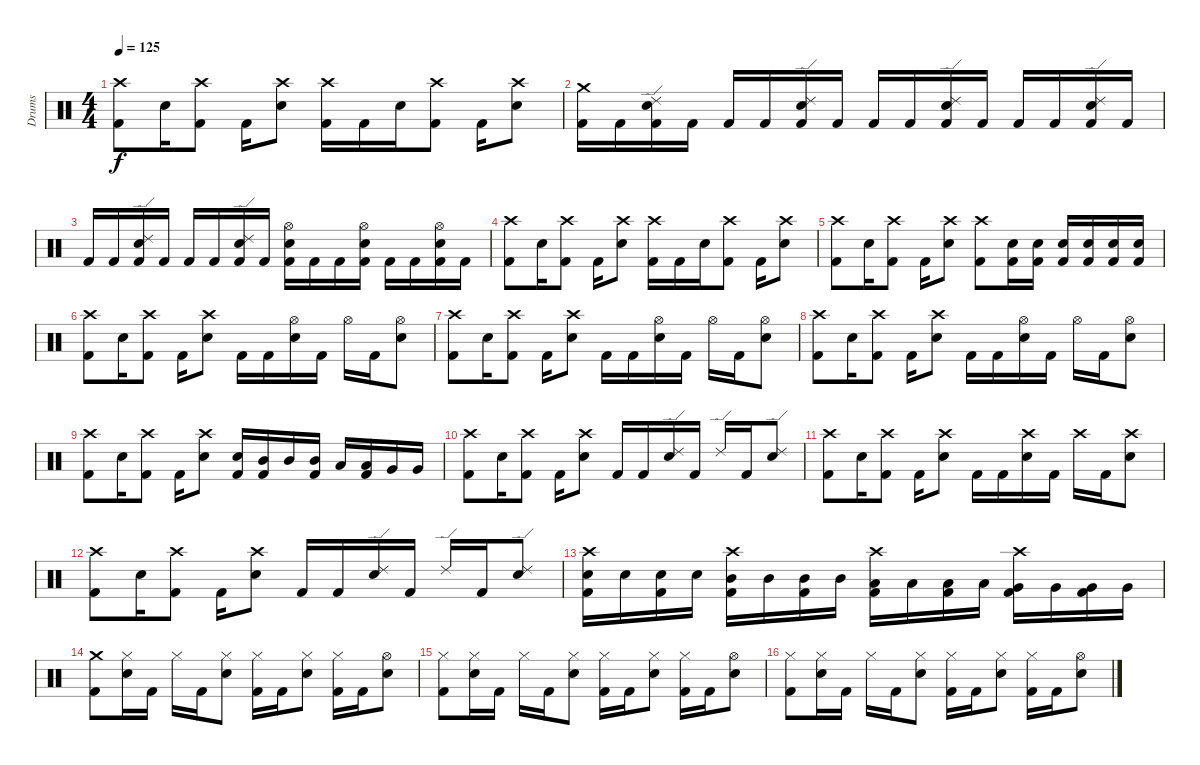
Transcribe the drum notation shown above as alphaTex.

\track ("Drums" "Drums") {instrument percussion}
\staff {score}
\articulation defaults
\ts (4 4)
\tempo 125
\clef neutral
\ks c
("Crash high (hit)" "Kick (hit) 2").8{dy f} "Snare (hit) 2".16 ("Crash high (hit)" "Kick (hit) 2").8 "Kick (hit) 2".16 ("Crash high (hit)" "Snare (hit) 2").8 ("Crash high (hit)" "Kick (hit) 2").16 "Kick (hit) 2".16 "Snare (hit) 2".16 ("Crash high (hit)" "Kick (hit) 2").8 "Kick (hit) 2".16 ("Crash high (hit)" "Snare (hit) 2").8 |
("Crash medium (hit)" "Kick (hit) 2").16 "Kick (hit) 2".16 ("Snare (hit) 2" "Ride (edge) 2" "Kick (hit) 2").16 "Kick (hit) 2".16 "Kick (hit) 2".16 "Kick (hit) 2".16 ("Snare (hit) 2" "Ride (edge) 2" "Kick (hit) 2").16 "Kick (hit) 2".16 "Kick (hit) 2".16 "Kick (hit) 2".16 ("Snare (hit) 2" "Ride (edge) 2" "Kick (hit) 2").16 "Kick (hit) 2".16 "Kick (hit) 2".16 "Kick (hit) 2".16 ("Snare (hit) 2" "Ride (edge) 2" "Kick (hit) 2").16 "Kick (hit) 2".16 |
"Kick (hit) 2".16 "Kick (hit) 2".16 ("Snare (hit) 2" "Ride (edge) 2" "Kick (hit) 2").16 "Kick (hit) 2".16 "Kick (hit) 2".16 "Kick (hit) 2".16 ("Snare (hit) 2" "Ride (edge) 2" "Kick (hit) 2").16 "Kick (hit) 2".16 ("Snare (hit) 2" "Hi-Hat (open)" "Kick (hit) 2").16 "Kick (hit) 2".16 "Kick (hit) 2".16 ("Snare (hit) 2" "Hi-Hat (open)" "Kick (hit) 2").16 "Kick (hit) 2".16 "Kick (hit) 2".16 ("Snare (hit) 2" "Hi-Hat (open)" "Kick (hit) 2").16 "Kick (hit) 2".16 |
("Crash high (hit)" "Kick (hit) 2").8 "Snare (hit) 2".16 ("Crash high (hit)" "Kick (hit) 2").8 "Kick (hit) 2".16 ("Crash high (hit)" "Snare (hit) 2").8 ("Crash high (hit)" "Kick (hit) 2").16 "Kick (hit) 2".16 "Snare (hit) 2".16 ("Crash high (hit)" "Kick (hit) 2").8 "Kick (hit) 2".16 ("Crash high (hit)" "Snare (hit) 2").8 |
("Crash high (hit)" "Kick (hit) 2").8 "Snare (hit) 2".16 ("Crash high (hit)" "Kick (hit) 2").8 "Kick (hit) 2".16 ("Crash high (hit)" "Snare (hit) 2").8 ("Crash high (hit)" "Kick (hit) 2").8 ("Snare (hit) 2" "Kick (hit) 2").16 ("Snare (hit) 2" "Kick (hit) 2").16 ("Snare (hit) 2" "Kick (hit) 2").16 ("Snare (hit) 2" "Kick (hit) 2").16 ("Snare (hit) 2" "Kick (hit) 2").16 ("Snare (hit) 2" "Kick (hit) 2").16 |
("Crash high (hit)" "Kick (hit) 2").8 "Snare (hit) 2".16 ("Crash high (hit)" "Kick (hit) 2").8 "Kick (hit) 2".16 ("Crash high (hit)" "Snare (hit) 2").8 "Kick (hit) 2".16 "Kick (hit) 2".16 ("Snare (hit) 2" "Hi-Hat (open)").16 "Kick (hit) 2".16 "Hi-Hat (open)".16 "Kick (hit) 2".16 ("Snare (hit) 2" "Hi-Hat (open)").8 |
("Crash high (hit)" "Kick (hit) 2").8 "Snare (hit) 2".16 ("Crash high (hit)" "Kick (hit) 2").8 "Kick (hit) 2".16 ("Crash high (hit)" "Snare (hit) 2").8 "Kick (hit) 2".16 "Kick (hit) 2".16 ("Snare (hit) 2" "Hi-Hat (open)").16 "Kick (hit) 2".16 "Hi-Hat (open)".16 "Kick (hit) 2".16 ("Snare (hit) 2" "Hi-Hat (open)").8 |
("Crash high (hit)" "Kick (hit) 2").8 "Snare (hit) 2".16 ("Crash high (hit)" "Kick (hit) 2").8 "Kick (hit) 2".16 ("Crash high (hit)" "Snare (hit) 2").8 "Kick (hit) 2".16 "Kick (hit) 2".16 ("Snare (hit) 2" "Hi-Hat (open)").16 "Kick (hit) 2".16 "Hi-Hat (open)".16 "Kick (hit) 2".16 ("Snare (hit) 2" "Hi-Hat (open)").8 |
("Crash high (hit)" "Kick (hit) 2").8 "Snare (hit) 2".16 ("Crash high (hit)" "Kick (hit) 2").8 "Kick (hit) 2".16 ("Crash high (hit)" "Snare (hit) 2").8 ("Snare (hit) 2" "Kick (hit) 2").16 ("Mid Tom (hit)" "Kick (hit) 2").16 "Mid Tom (hit)".16 ("Mid Tom (hit)" "Kick (hit) 2").16 "Low Tom (hit)".16 ("Low Tom (hit)" "Kick (hit) 2").16 "Very Low Tom (hit)".16 "Very Low Tom (hit)".16 |
("Crash high (hit)" "Kick (hit) 2").8 "Snare (hit) 2".16 ("Crash high (hit)" "Kick (hit) 2").8 "Kick (hit) 2".16 ("Crash high (hit)" "Snare (hit) 2").8 "Kick (hit) 2".16 "Kick (hit) 2".16 ("Snare (hit) 2" "Ride (edge) 2").16 "Kick (hit) 2".16 "Ride (edge) 2".16 "Kick (hit) 2".16 ("Snare (hit) 2" "Ride (edge) 2").8 |
("Crash high (hit)" "Kick (hit) 2").8 "Snare (hit) 2".16 ("Crash high (hit)" "Kick (hit) 2").8 "Kick (hit) 2".16 ("Crash high (hit)" "Snare (hit) 2").8 "Kick (hit) 2".16 "Kick (hit) 2".16 ("Crash high (hit)" "Snare (hit) 2").16 "Kick (hit) 2".16 "Crash high (hit)".16 "Kick (hit) 2".16 ("Crash high (hit)" "Snare (hit) 2").8 |
("Crash high (hit)" "Kick (hit) 2").8 "Snare (hit) 2".16 ("Crash high (hit)" "Kick (hit) 2").8 "Kick (hit) 2".16 ("Crash high (hit)" "Snare (hit) 2").8 "Kick (hit) 2".16 "Kick (hit) 2".16 ("Snare (hit) 2" "Ride (edge) 2").16 "Kick (hit) 2".16 "Ride (edge) 2".16 "Kick (hit) 2".16 ("Snare (hit) 2" "Ride (edge) 2").8 |
("Crash high (hit)" "Snare (hit) 2" "Kick (hit) 2").16 "Snare (hit) 2".16 ("Snare (hit) 2" "Kick (hit) 2").16 "Snare (hit) 2".16 ("Crash high (hit)" "Mid Tom (hit)" "Kick (hit) 2").16 "Mid Tom (hit)".16 ("Mid Tom (hit)" "Kick (hit) 2").16 "Mid Tom (hit)".16 ("Crash high (hit)" "Low Tom (hit)" "Kick (hit) 2").16 "Low Tom (hit)".16 ("Low Tom (hit)" "Kick (hit) 2").16 "Low Tom (hit)".16 ("Crash high (hit)" "Very Low Tom (hit)" "Kick (hit) 2").16 "Very Low Tom (hit)".16 ("Very Low Tom (hit)" "Kick (hit) 2").16 "Very Low Tom (hit)".16 |
("Crash medium (hit)" "Kick (hit) 2").8 ("Snare (hit) 2" "Hi-Hat (closed)").16 "Kick (hit) 2".16 "Hi-Hat (closed)".16 "Kick (hit) 2".16 ("Snare (hit) 2" "Hi-Hat (closed)").8 ("Hi-Hat (closed)" "Kick (hit) 2").16 "Kick (hit) 2".16 ("Snare (hit) 2" "Hi-Hat (closed)").8 ("Hi-Hat (closed)" "Kick (hit) 2").16 "Kick (hit) 2".16 ("Snare (hit) 2" "Hi-Hat (open)").8 |
("Hi-Hat (closed)" "Kick (hit) 2").8 ("Snare (hit) 2" "Hi-Hat (closed)").16 "Kick (hit) 2".16 "Hi-Hat (closed)".16 "Kick (hit) 2".16 ("Snare (hit) 2" "Hi-Hat (closed)").8 ("Hi-Hat (closed)" "Kick (hit) 2").16 "Kick (hit) 2".16 ("Snare (hit) 2" "Hi-Hat (closed)").8 ("Hi-Hat (closed)" "Kick (hit) 2").16 "Kick (hit) 2".16 ("Snare (hit) 2" "Hi-Hat (open)").8 |
("Hi-Hat (closed)" "Kick (hit) 2").8 ("Snare (hit) 2" "Hi-Hat (closed)").16 "Kick (hit) 2".16 "Hi-Hat (closed)".16 "Kick (hit) 2".16 ("Snare (hit) 2" "Hi-Hat (closed)").8 ("Hi-Hat (closed)" "Kick (hit) 2").16 "Kick (hit) 2".16 ("Snare (hit) 2" "Hi-Hat (closed)").8 ("Hi-Hat (closed)" "Kick (hit) 2").16 "Kick (hit) 2".16 ("Snare (hit) 2" "Hi-Hat (open)").8
